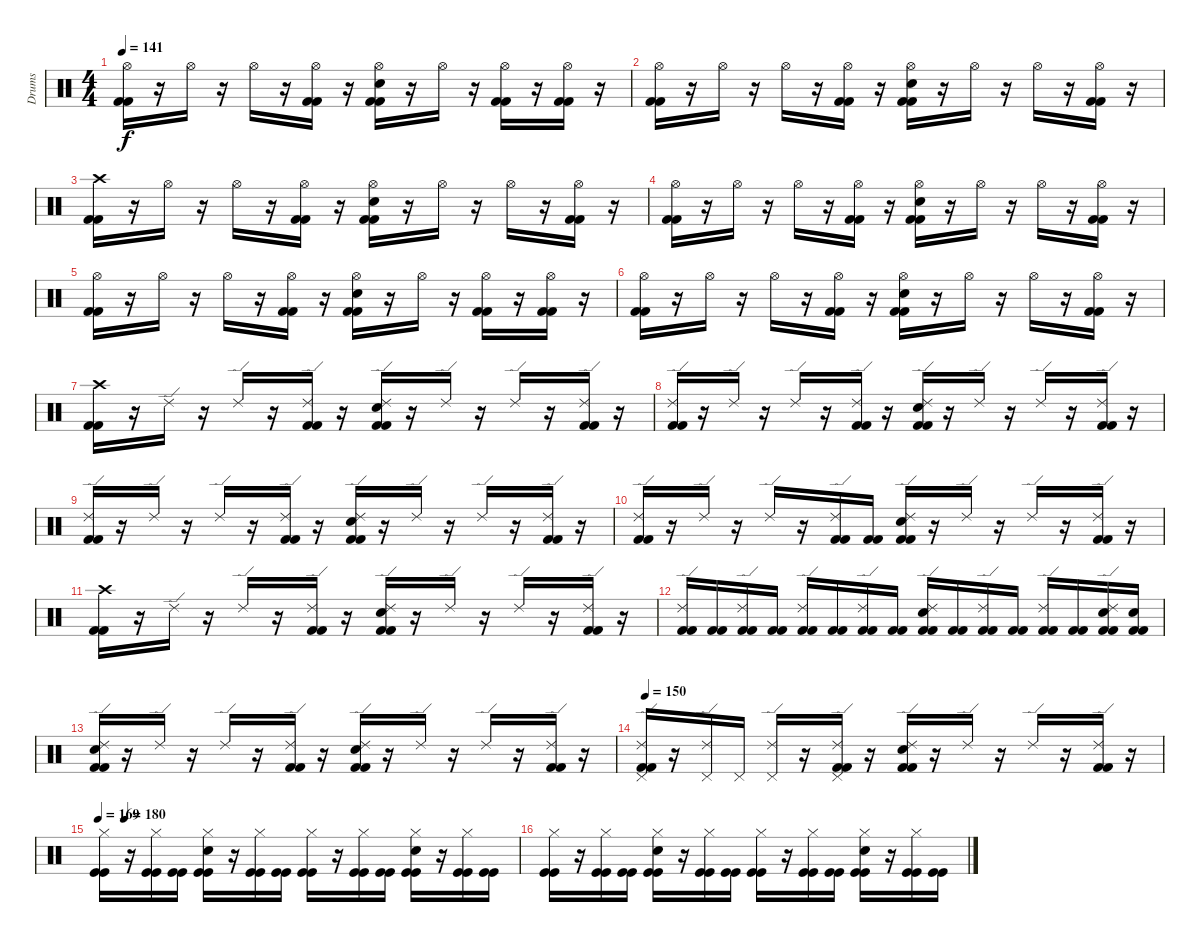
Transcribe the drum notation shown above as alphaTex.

\track ("Drums" "Drums") {instrument percussion}
\staff {score}
\articulation defaults
\ts (4 4)
\tempo 141
\clef neutral
\ks c
("Hi-Hat (open)" "Kick (hit) 2" "Kick (hit) 2").16{dy f} r.16 "Hi-Hat (open)".16 r.16 "Hi-Hat (open)".16 r.16 ("Hi-Hat (open)" "Kick (hit) 2" "Kick (hit) 2").16 r.16 ("Hi-Hat (open)" "Snare (hit) 2" "Kick (hit) 2" "Kick (hit) 2").16 r.16 "Hi-Hat (open)".16 r.16 ("Hi-Hat (open)" "Kick (hit) 2" "Kick (hit) 2").16 r.16 ("Hi-Hat (open)" "Kick (hit) 2" "Kick (hit) 2").16 r.16 |
("Hi-Hat (open)" "Kick (hit) 2" "Kick (hit) 2").16 r.16 "Hi-Hat (open)".16 r.16 "Hi-Hat (open)".16 r.16 ("Hi-Hat (open)" "Kick (hit) 2" "Kick (hit) 2").16 r.16 ("Hi-Hat (open)" "Snare (hit) 2" "Kick (hit) 2" "Kick (hit) 2").16 r.16 "Hi-Hat (open)".16 r.16 "Hi-Hat (open)".16 r.16 ("Hi-Hat (open)" "Kick (hit) 2" "Kick (hit) 2").16 r.16 |
("Crash high (hit)" "Kick (hit) 2" "Kick (hit) 2").16 r.16 "Hi-Hat (open)".16 r.16 "Hi-Hat (open)".16 r.16 ("Hi-Hat (open)" "Kick (hit) 2" "Kick (hit) 2").16 r.16 ("Hi-Hat (open)" "Snare (hit) 2" "Kick (hit) 2" "Kick (hit) 2").16 r.16 "Hi-Hat (open)".16 r.16 "Hi-Hat (open)".16 r.16 ("Hi-Hat (open)" "Kick (hit) 2" "Kick (hit) 2").16 r.16 |
("Hi-Hat (open)" "Kick (hit) 2" "Kick (hit) 2").16 r.16 "Hi-Hat (open)".16 r.16 "Hi-Hat (open)".16 r.16 ("Hi-Hat (open)" "Kick (hit) 2" "Kick (hit) 2").16 r.16 ("Hi-Hat (open)" "Snare (hit) 2" "Kick (hit) 2" "Kick (hit) 2").16 r.16 "Hi-Hat (open)".16 r.16 "Hi-Hat (open)".16 r.16 ("Hi-Hat (open)" "Kick (hit) 2" "Kick (hit) 2").16 r.16 |
("Hi-Hat (open)" "Kick (hit) 2" "Kick (hit) 2").16 r.16 "Hi-Hat (open)".16 r.16 "Hi-Hat (open)".16 r.16 ("Hi-Hat (open)" "Kick (hit) 2" "Kick (hit) 2").16 r.16 ("Hi-Hat (open)" "Snare (hit) 2" "Kick (hit) 2" "Kick (hit) 2").16 r.16 "Hi-Hat (open)".16 r.16 ("Hi-Hat (open)" "Kick (hit) 2" "Kick (hit) 2").16 r.16 ("Hi-Hat (open)" "Kick (hit) 2" "Kick (hit) 2").16 r.16 |
("Hi-Hat (open)" "Kick (hit) 2" "Kick (hit) 2").16 r.16 "Hi-Hat (open)".16 r.16 "Hi-Hat (open)".16 r.16 ("Hi-Hat (open)" "Kick (hit) 2" "Kick (hit) 2").16 r.16 ("Hi-Hat (open)" "Snare (hit) 2" "Kick (hit) 2" "Kick (hit) 2").16 r.16 "Hi-Hat (open)".16 r.16 "Hi-Hat (open)".16 r.16 ("Hi-Hat (open)" "Kick (hit) 2" "Kick (hit) 2").16 r.16 |
("Crash high (hit)" "Kick (hit) 2" "Kick (hit) 2").16 r.16 "Ride (edge) 2".16 r.16 "Ride (edge) 2".16 r.16 ("Ride (edge) 2" "Kick (hit) 2" "Kick (hit) 2").16 r.16 ("Ride (edge) 2" "Snare (hit) 2" "Kick (hit) 2" "Kick (hit) 2").16 r.16 "Ride (edge) 2".16 r.16 "Ride (edge) 2".16 r.16 ("Ride (edge) 2" "Kick (hit) 2" "Kick (hit) 2").16 r.16 |
("Ride (edge) 2" "Kick (hit) 2" "Kick (hit) 2").16 r.16 "Ride (edge) 2".16 r.16 "Ride (edge) 2".16 r.16 ("Ride (edge) 2" "Kick (hit) 2" "Kick (hit) 2").16 r.16 ("Ride (edge) 2" "Snare (hit) 2" "Kick (hit) 2" "Kick (hit) 2").16 r.16 "Ride (edge) 2".16 r.16 "Ride (edge) 2".16 r.16 ("Ride (edge) 2" "Kick (hit) 2" "Kick (hit) 2").16 r.16 |
("Ride (edge) 2" "Kick (hit) 2" "Kick (hit) 2").16 r.16 "Ride (edge) 2".16 r.16 "Ride (edge) 2".16 r.16 ("Ride (edge) 2" "Kick (hit) 2" "Kick (hit) 2").16 r.16 ("Ride (edge) 2" "Snare (hit) 2" "Kick (hit) 2" "Kick (hit) 2").16 r.16 "Ride (edge) 2".16 r.16 "Ride (edge) 2".16 r.16 ("Ride (edge) 2" "Kick (hit) 2" "Kick (hit) 2").16 r.16 |
("Ride (edge) 2" "Kick (hit) 2" "Kick (hit) 2").16 r.16 "Ride (edge) 2".16 r.16 "Ride (edge) 2".16 r.16 ("Ride (edge) 2" "Kick (hit) 2" "Kick (hit) 2").16 ("Kick (hit) 2" "Kick (hit) 2").16 ("Ride (edge) 2" "Snare (hit) 2" "Kick (hit) 2" "Kick (hit) 2").16 r.16 "Ride (edge) 2".16 r.16 "Ride (edge) 2".16 r.16 ("Ride (edge) 2" "Kick (hit) 2" "Kick (hit) 2").16 r.16 |
("Crash high (hit)" "Kick (hit) 2" "Kick (hit) 2").16 r.16 "Ride (edge) 2".16 r.16 "Ride (edge) 2".16 r.16 ("Ride (edge) 2" "Kick (hit) 2" "Kick (hit) 2").16 r.16 ("Ride (edge) 2" "Snare (hit) 2" "Kick (hit) 2" "Kick (hit) 2").16 r.16 "Ride (edge) 2".16 r.16 "Ride (edge) 2".16 r.16 ("Ride (edge) 2" "Kick (hit) 2" "Kick (hit) 2").16 r.16 |
("Ride (edge) 2" "Kick (hit) 2" "Kick (hit) 2").16 ("Kick (hit) 2" "Kick (hit) 2").16 ("Ride (edge) 2" "Kick (hit) 2" "Kick (hit) 2").16 ("Kick (hit) 2" "Kick (hit) 2").16 ("Ride (edge) 2" "Kick (hit) 2" "Kick (hit) 2").16 ("Kick (hit) 2" "Kick (hit) 2").16 ("Ride (edge) 2" "Kick (hit) 2" "Kick (hit) 2").16 ("Kick (hit) 2" "Kick (hit) 2").16 ("Ride (edge) 2" "Snare (hit) 2" "Kick (hit) 2" "Kick (hit) 2").16 ("Kick (hit) 2" "Kick (hit) 2").16 ("Ride (edge) 2" "Kick (hit) 2" "Kick (hit) 2").16 ("Kick (hit) 2" "Kick (hit) 2").16 ("Ride (edge) 2" "Kick (hit) 2" "Kick (hit) 2").16 ("Kick (hit) 2" "Kick (hit) 2").16 ("Ride (edge) 2" "Snare (hit) 2" "Kick (hit) 2" "Kick (hit) 2").16 ("Snare (hit) 2" "Kick (hit) 2" "Kick (hit) 2").16 |
("Ride (edge) 2" "Snare (hit) 2" "Kick (hit) 2" "Kick (hit) 2").16 r.16 "Ride (edge) 2".16 r.16 "Ride (edge) 2".16 r.16 ("Ride (edge) 2" "Kick (hit) 2" "Kick (hit) 2").16 r.16 ("Ride (edge) 2" "Snare (hit) 2" "Kick (hit) 2" "Kick (hit) 2").16 r.16 "Ride (edge) 2".16 r.16 "Ride (edge) 2".16 r.16 ("Ride (edge) 2" "Kick (hit) 2" "Kick (hit) 2").16 r.16 |
\tempo 150
("Ride (edge) 2" "Pedal Hi-Hat (hit)" "Kick (hit) 2" "Kick (hit) 2").16 r.16 ("Ride (edge) 2" "Pedal Hi-Hat (hit)").16 "Pedal Hi-Hat (hit)".16 ("Ride (edge) 2" "Pedal Hi-Hat (hit)").16 r.16 ("Ride (edge) 2" "Pedal Hi-Hat (hit)" "Kick (hit) 2" "Kick (hit) 2").16 r.16 ("Ride (edge) 2" "Snare (hit) 2" "Kick (hit) 2" "Kick (hit) 2").16 r.16 "Ride (edge) 2".16 r.16 "Ride (edge) 2".16 r.16 ("Ride (edge) 2" "Kick (hit) 2" "Kick (hit) 2").16 r.16 |
\tempo 169
\tempo (180 0.0625)
("Hi-Hat (closed)" "Kick (hit)" "Kick (hit)").16 r.16 ("Hi-Hat (closed)" "Kick (hit)" "Kick (hit)").16 ("Kick (hit)" "Kick (hit)").16 ("Snare (hit) 2" "Hi-Hat (closed)" "Kick (hit)" "Kick (hit)").16 r.16 ("Hi-Hat (closed)" "Kick (hit)" "Kick (hit)").16 ("Kick (hit)" "Kick (hit)").16 ("Hi-Hat (closed)" "Kick (hit)" "Kick (hit)").16 r.16 ("Hi-Hat (closed)" "Kick (hit)" "Kick (hit)").16 ("Kick (hit)" "Kick (hit)").16 ("Snare (hit) 2" "Hi-Hat (closed)" "Kick (hit)" "Kick (hit)").16 r.16 ("Hi-Hat (closed)" "Kick (hit)" "Kick (hit)").16 ("Kick (hit)" "Kick (hit)").16 |
("Hi-Hat (closed)" "Kick (hit)" "Kick (hit)").16 r.16 ("Hi-Hat (closed)" "Kick (hit)" "Kick (hit)").16 ("Kick (hit)" "Kick (hit)").16 ("Snare (hit) 2" "Hi-Hat (closed)" "Kick (hit)" "Kick (hit)").16 r.16 ("Hi-Hat (closed)" "Kick (hit)" "Kick (hit)").16 ("Kick (hit)" "Kick (hit)").16 ("Hi-Hat (closed)" "Kick (hit)" "Kick (hit)").16 r.16 ("Hi-Hat (closed)" "Kick (hit)" "Kick (hit)").16 ("Kick (hit)" "Kick (hit)").16 ("Snare (hit) 2" "Hi-Hat (closed)" "Kick (hit)" "Kick (hit)").16 r.16 ("Hi-Hat (closed)" "Kick (hit)" "Kick (hit)").16 ("Kick (hit)" "Kick (hit)").16
